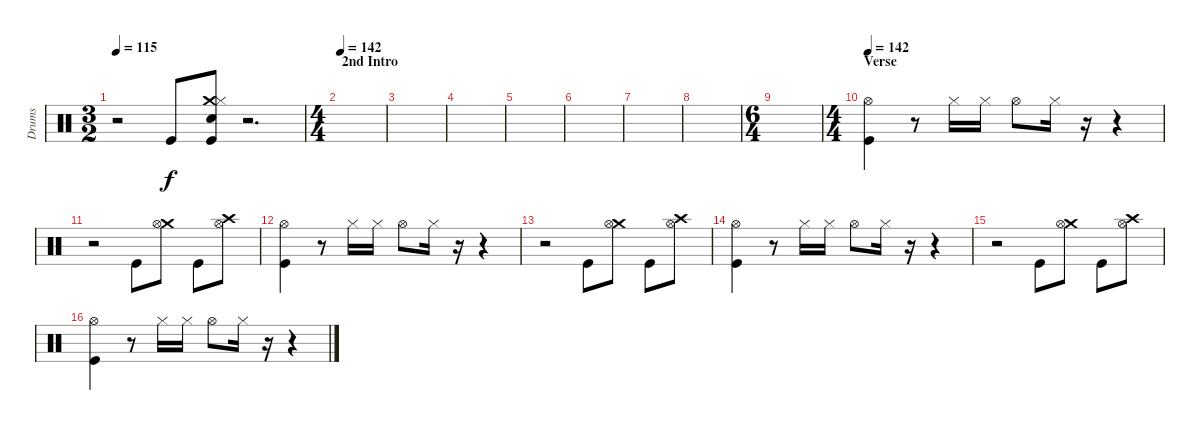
\track ("Drums" "Drums") {instrument percussion}
\staff {score}
\articulation defaults
\ts (3 2)
\tempo 115
\clef neutral
\ks c
r.2{dy f} "Kick (hit)".8 ("Crash medium (hit)" "Hi-Hat (closed)" "Snare (hit) 2" "Kick (hit)").8 r.2{d} |
\ts (4 4)
\section ("" "2nd Intro")
\tempo 142
|
|
|
|
|
|
|
\ts (6 4)
|
\ts (4 4)
\section ("" "Verse")
\tempo 142
("Hi-Hat (open)" "Kick (hit)").4 r.8 "Hi-Hat (closed)".16 "Hi-Hat (closed)".16 "Hi-Hat (open)".8 "Hi-Hat (closed)".16 r.16 r.4 |
r.2 "Kick (hit)".8 ("Crash medium (hit)" "Hi-Hat (open)").8 "Kick (hit)".8 ("Crash high (hit)" "Hi-Hat (open)").8 |
("Hi-Hat (open)" "Kick (hit)").4 r.8 "Hi-Hat (closed)".16 "Hi-Hat (closed)".16 "Hi-Hat (open)".8 "Hi-Hat (closed)".16 r.16 r.4 |
r.2 "Kick (hit)".8 ("Crash medium (hit)" "Hi-Hat (open)").8 "Kick (hit)".8 ("Crash high (hit)" "Hi-Hat (open)").8 |
("Hi-Hat (open)" "Kick (hit)").4 r.8 "Hi-Hat (closed)".16 "Hi-Hat (closed)".16 "Hi-Hat (open)".8 "Hi-Hat (closed)".16 r.16 r.4 |
r.2 "Kick (hit)".8 ("Crash medium (hit)" "Hi-Hat (open)").8 "Kick (hit)".8 ("Crash high (hit)" "Hi-Hat (open)").8 |
("Hi-Hat (open)" "Kick (hit)").4 r.8 "Hi-Hat (closed)".16 "Hi-Hat (closed)".16 "Hi-Hat (open)".8 "Hi-Hat (closed)".16 r.16 r.4
